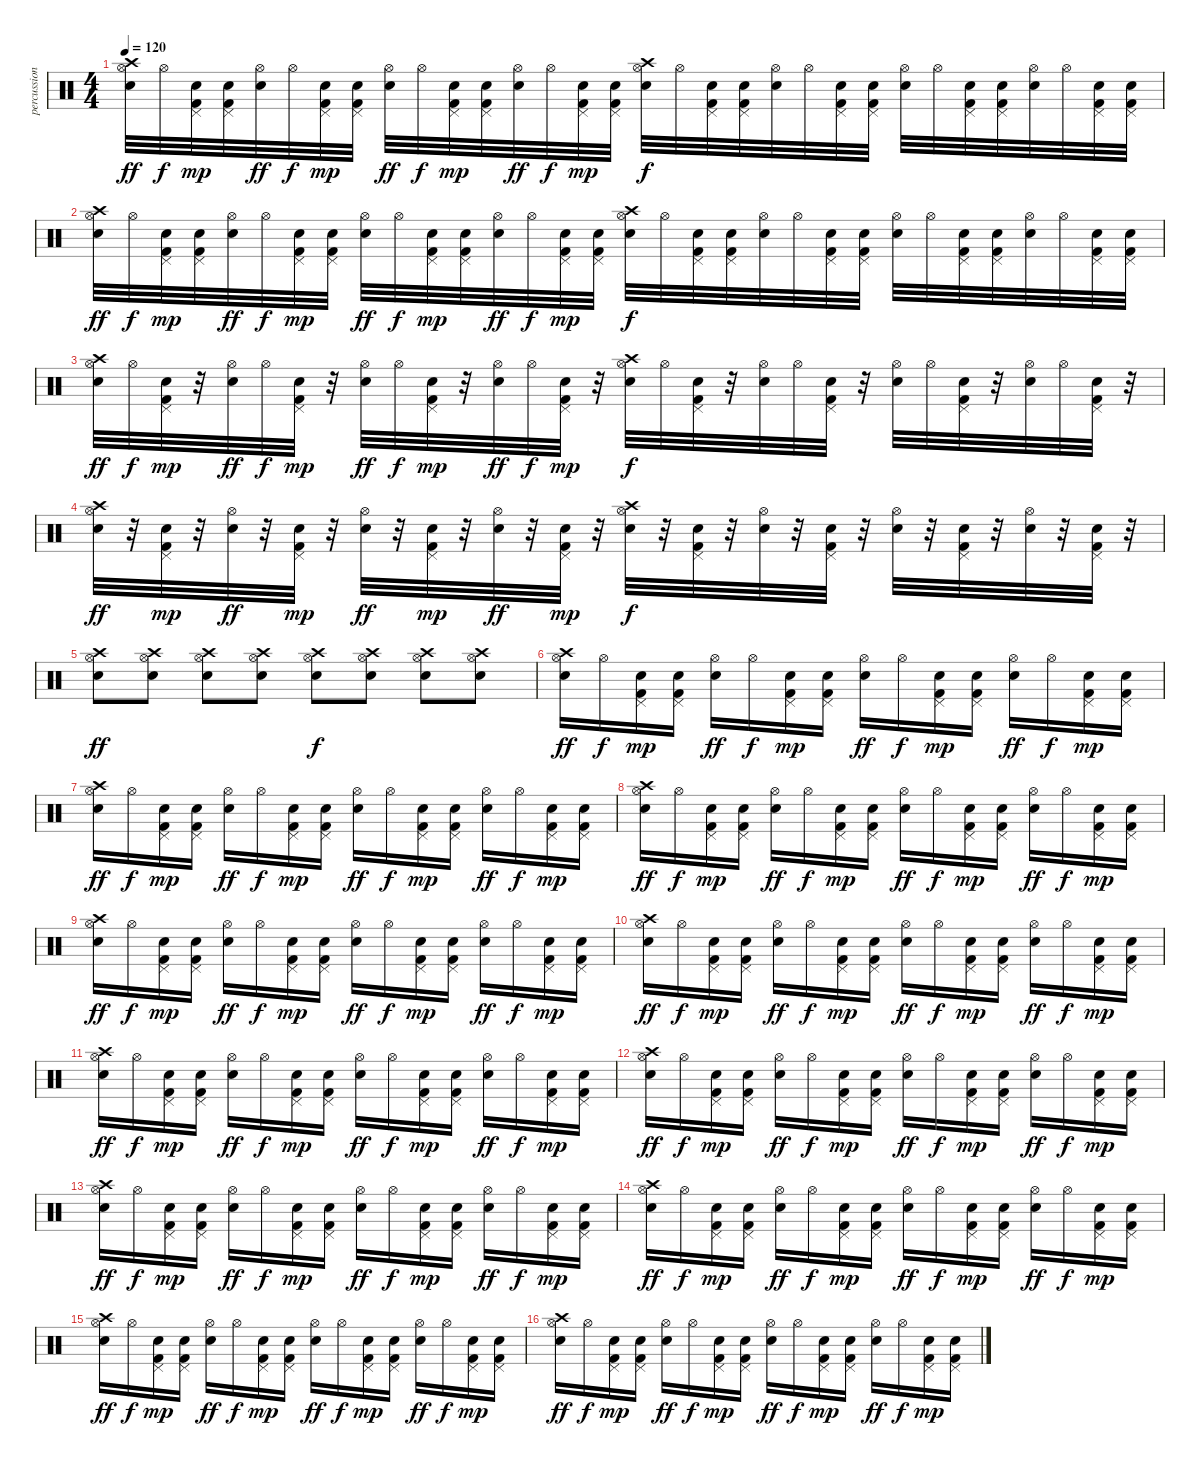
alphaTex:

\track ("percussion" "percussion") {instrument percussion}
\staff {score}
\articulation defaults
\ts (4 4)
\tempo 120
\clef neutral
\ks c
("Hi-Hat (open)" "Electric Snare (hit)" "Crash high (hit)").32{dy ff} "Hi-Hat (open)".32{dy f} ("Electric Snare (hit)" "Kick (hit) 2" "Pedal Hi-Hat (hit)").32{dy mp} ("Electric Snare (hit)" "Kick (hit) 2" "Pedal Hi-Hat (hit)").32 ("Hi-Hat (open)" "Electric Snare (hit)").32{dy ff} "Hi-Hat (open)".32{dy f} ("Electric Snare (hit)" "Kick (hit) 2" "Pedal Hi-Hat (hit)").32{dy mp} ("Electric Snare (hit)" "Kick (hit) 2" "Pedal Hi-Hat (hit)").32 ("Hi-Hat (open)" "Electric Snare (hit)").32{dy ff} "Hi-Hat (open)".32{dy f} ("Electric Snare (hit)" "Kick (hit) 2" "Pedal Hi-Hat (hit)").32{dy mp} ("Electric Snare (hit)" "Kick (hit) 2" "Pedal Hi-Hat (hit)").32 ("Hi-Hat (open)" "Electric Snare (hit)").32{dy ff} "Hi-Hat (open)".32{dy f} ("Electric Snare (hit)" "Kick (hit) 2" "Pedal Hi-Hat (hit)").32{dy mp} ("Electric Snare (hit)" "Kick (hit) 2" "Pedal Hi-Hat (hit)").32 ("Hi-Hat (open)" "Electric Snare (hit)" "Crash high (hit)").32{dy f} "Hi-Hat (open)".32 ("Electric Snare (hit)" "Kick (hit) 2" "Pedal Hi-Hat (hit)").32 ("Electric Snare (hit)" "Kick (hit) 2" "Pedal Hi-Hat (hit)").32 ("Hi-Hat (open)" "Electric Snare (hit)").32 "Hi-Hat (open)".32 ("Electric Snare (hit)" "Kick (hit) 2" "Pedal Hi-Hat (hit)").32 ("Electric Snare (hit)" "Kick (hit) 2" "Pedal Hi-Hat (hit)").32 ("Hi-Hat (open)" "Electric Snare (hit)").32 "Hi-Hat (open)".32 ("Electric Snare (hit)" "Kick (hit) 2" "Pedal Hi-Hat (hit)").32 ("Electric Snare (hit)" "Kick (hit) 2" "Pedal Hi-Hat (hit)").32 ("Hi-Hat (open)" "Electric Snare (hit)").32 "Hi-Hat (open)".32 ("Electric Snare (hit)" "Kick (hit) 2" "Pedal Hi-Hat (hit)").32 ("Electric Snare (hit)" "Kick (hit) 2" "Pedal Hi-Hat (hit)").32 |
("Hi-Hat (open)" "Electric Snare (hit)" "Crash high (hit)").32{dy ff} "Hi-Hat (open)".32{dy f} ("Electric Snare (hit)" "Kick (hit) 2" "Pedal Hi-Hat (hit)").32{dy mp} ("Electric Snare (hit)" "Kick (hit) 2" "Pedal Hi-Hat (hit)").32 ("Hi-Hat (open)" "Electric Snare (hit)").32{dy ff} "Hi-Hat (open)".32{dy f} ("Electric Snare (hit)" "Kick (hit) 2" "Pedal Hi-Hat (hit)").32{dy mp} ("Electric Snare (hit)" "Kick (hit) 2" "Pedal Hi-Hat (hit)").32 ("Hi-Hat (open)" "Electric Snare (hit)").32{dy ff} "Hi-Hat (open)".32{dy f} ("Electric Snare (hit)" "Kick (hit) 2" "Pedal Hi-Hat (hit)").32{dy mp} ("Electric Snare (hit)" "Kick (hit) 2" "Pedal Hi-Hat (hit)").32 ("Hi-Hat (open)" "Electric Snare (hit)").32{dy ff} "Hi-Hat (open)".32{dy f} ("Electric Snare (hit)" "Kick (hit) 2" "Pedal Hi-Hat (hit)").32{dy mp} ("Electric Snare (hit)" "Kick (hit) 2" "Pedal Hi-Hat (hit)").32 ("Hi-Hat (open)" "Electric Snare (hit)" "Crash high (hit)").32{dy f} "Hi-Hat (open)".32 ("Electric Snare (hit)" "Kick (hit) 2" "Pedal Hi-Hat (hit)").32 ("Electric Snare (hit)" "Kick (hit) 2" "Pedal Hi-Hat (hit)").32 ("Hi-Hat (open)" "Electric Snare (hit)").32 "Hi-Hat (open)".32 ("Electric Snare (hit)" "Kick (hit) 2" "Pedal Hi-Hat (hit)").32 ("Electric Snare (hit)" "Kick (hit) 2" "Pedal Hi-Hat (hit)").32 ("Hi-Hat (open)" "Electric Snare (hit)").32 "Hi-Hat (open)".32 ("Electric Snare (hit)" "Kick (hit) 2" "Pedal Hi-Hat (hit)").32 ("Electric Snare (hit)" "Kick (hit) 2" "Pedal Hi-Hat (hit)").32 ("Hi-Hat (open)" "Electric Snare (hit)").32 "Hi-Hat (open)".32 ("Electric Snare (hit)" "Kick (hit) 2" "Pedal Hi-Hat (hit)").32 ("Electric Snare (hit)" "Kick (hit) 2" "Pedal Hi-Hat (hit)").32 |
("Hi-Hat (open)" "Electric Snare (hit)" "Crash high (hit)").32{dy ff} "Hi-Hat (open)".32{dy f} ("Electric Snare (hit)" "Kick (hit) 2" "Pedal Hi-Hat (hit)").32{dy mp} r.32 ("Hi-Hat (open)" "Electric Snare (hit)").32{dy ff} "Hi-Hat (open)".32{dy f} ("Electric Snare (hit)" "Kick (hit) 2" "Pedal Hi-Hat (hit)").32{dy mp} r.32 ("Hi-Hat (open)" "Electric Snare (hit)").32{dy ff} "Hi-Hat (open)".32{dy f} ("Electric Snare (hit)" "Kick (hit) 2" "Pedal Hi-Hat (hit)").32{dy mp} r.32 ("Hi-Hat (open)" "Electric Snare (hit)").32{dy ff} "Hi-Hat (open)".32{dy f} ("Electric Snare (hit)" "Kick (hit) 2" "Pedal Hi-Hat (hit)").32{dy mp} r.32 ("Hi-Hat (open)" "Electric Snare (hit)" "Crash high (hit)").32{dy f} "Hi-Hat (open)".32 ("Electric Snare (hit)" "Kick (hit) 2" "Pedal Hi-Hat (hit)").32 r.32 ("Hi-Hat (open)" "Electric Snare (hit)").32 "Hi-Hat (open)".32 ("Electric Snare (hit)" "Kick (hit) 2" "Pedal Hi-Hat (hit)").32 r.32 ("Hi-Hat (open)" "Electric Snare (hit)").32 "Hi-Hat (open)".32 ("Electric Snare (hit)" "Kick (hit) 2" "Pedal Hi-Hat (hit)").32 r.32 ("Hi-Hat (open)" "Electric Snare (hit)").32 "Hi-Hat (open)".32 ("Electric Snare (hit)" "Kick (hit) 2" "Pedal Hi-Hat (hit)").32 r.32 |
("Hi-Hat (open)" "Electric Snare (hit)" "Crash high (hit)").32{dy ff} r.32 ("Electric Snare (hit)" "Kick (hit) 2" "Pedal Hi-Hat (hit)").32{dy mp} r.32 ("Hi-Hat (open)" "Electric Snare (hit)").32{dy ff} r.32 ("Electric Snare (hit)" "Kick (hit) 2" "Pedal Hi-Hat (hit)").32{dy mp} r.32 ("Hi-Hat (open)" "Electric Snare (hit)").32{dy ff} r.32 ("Electric Snare (hit)" "Kick (hit) 2" "Pedal Hi-Hat (hit)").32{dy mp} r.32 ("Hi-Hat (open)" "Electric Snare (hit)").32{dy ff} r.32 ("Electric Snare (hit)" "Kick (hit) 2" "Pedal Hi-Hat (hit)").32{dy mp} r.32 ("Hi-Hat (open)" "Electric Snare (hit)" "Crash high (hit)").32{dy f} r.32 ("Electric Snare (hit)" "Kick (hit) 2" "Pedal Hi-Hat (hit)").32 r.32 ("Hi-Hat (open)" "Electric Snare (hit)").32 r.32 ("Electric Snare (hit)" "Kick (hit) 2" "Pedal Hi-Hat (hit)").32 r.32 ("Hi-Hat (open)" "Electric Snare (hit)").32 r.32 ("Electric Snare (hit)" "Kick (hit) 2" "Pedal Hi-Hat (hit)").32 r.32 ("Hi-Hat (open)" "Electric Snare (hit)").32 r.32 ("Electric Snare (hit)" "Kick (hit) 2" "Pedal Hi-Hat (hit)").32 r.32 |
("Hi-Hat (open)" "Electric Snare (hit)" "Crash high (hit)").8{dy ff} ("Hi-Hat (open)" "Electric Snare (hit)" "Crash high (hit)").8 ("Hi-Hat (open)" "Electric Snare (hit)" "Crash high (hit)").8 ("Hi-Hat (open)" "Electric Snare (hit)" "Crash high (hit)").8 ("Hi-Hat (open)" "Electric Snare (hit)" "Crash high (hit)").8{dy f} ("Hi-Hat (open)" "Electric Snare (hit)" "Crash high (hit)").8 ("Hi-Hat (open)" "Electric Snare (hit)" "Crash high (hit)").8 ("Hi-Hat (open)" "Electric Snare (hit)" "Crash high (hit)").8 |
("Hi-Hat (open)" "Electric Snare (hit)" "Crash high (hit)").16{dy ff} "Hi-Hat (open)".16{dy f} ("Electric Snare (hit)" "Kick (hit) 2" "Pedal Hi-Hat (hit)").16{dy mp} ("Electric Snare (hit)" "Kick (hit) 2" "Pedal Hi-Hat (hit)").16 ("Hi-Hat (open)" "Electric Snare (hit)").16{dy ff} "Hi-Hat (open)".16{dy f} ("Electric Snare (hit)" "Kick (hit) 2" "Pedal Hi-Hat (hit)").16{dy mp} ("Electric Snare (hit)" "Kick (hit) 2" "Pedal Hi-Hat (hit)").16 ("Hi-Hat (open)" "Electric Snare (hit)").16{dy ff} "Hi-Hat (open)".16{dy f} ("Electric Snare (hit)" "Kick (hit) 2" "Pedal Hi-Hat (hit)").16{dy mp} ("Electric Snare (hit)" "Kick (hit) 2" "Pedal Hi-Hat (hit)").16 ("Hi-Hat (open)" "Electric Snare (hit)").16{dy ff} "Hi-Hat (open)".16{dy f} ("Electric Snare (hit)" "Kick (hit) 2" "Pedal Hi-Hat (hit)").16{dy mp} ("Electric Snare (hit)" "Kick (hit) 2" "Pedal Hi-Hat (hit)").16 |
("Hi-Hat (open)" "Electric Snare (hit)" "Crash high (hit)").16{dy ff} "Hi-Hat (open)".16{dy f} ("Electric Snare (hit)" "Kick (hit) 2" "Pedal Hi-Hat (hit)").16{dy mp} ("Electric Snare (hit)" "Kick (hit) 2" "Pedal Hi-Hat (hit)").16 ("Hi-Hat (open)" "Electric Snare (hit)").16{dy ff} "Hi-Hat (open)".16{dy f} ("Electric Snare (hit)" "Kick (hit) 2" "Pedal Hi-Hat (hit)").16{dy mp} ("Electric Snare (hit)" "Kick (hit) 2" "Pedal Hi-Hat (hit)").16 ("Hi-Hat (open)" "Electric Snare (hit)").16{dy ff} "Hi-Hat (open)".16{dy f} ("Electric Snare (hit)" "Kick (hit) 2" "Pedal Hi-Hat (hit)").16{dy mp} ("Electric Snare (hit)" "Kick (hit) 2" "Pedal Hi-Hat (hit)").16 ("Hi-Hat (open)" "Electric Snare (hit)").16{dy ff} "Hi-Hat (open)".16{dy f} ("Electric Snare (hit)" "Kick (hit) 2" "Pedal Hi-Hat (hit)").16{dy mp} ("Electric Snare (hit)" "Kick (hit) 2" "Pedal Hi-Hat (hit)").16 |
("Hi-Hat (open)" "Electric Snare (hit)" "Crash high (hit)").16{dy ff} "Hi-Hat (open)".16{dy f} ("Electric Snare (hit)" "Kick (hit) 2" "Pedal Hi-Hat (hit)").16{dy mp} ("Electric Snare (hit)" "Kick (hit) 2" "Pedal Hi-Hat (hit)").16 ("Hi-Hat (open)" "Electric Snare (hit)").16{dy ff} "Hi-Hat (open)".16{dy f} ("Electric Snare (hit)" "Kick (hit) 2" "Pedal Hi-Hat (hit)").16{dy mp} ("Electric Snare (hit)" "Kick (hit) 2" "Pedal Hi-Hat (hit)").16 ("Hi-Hat (open)" "Electric Snare (hit)").16{dy ff} "Hi-Hat (open)".16{dy f} ("Electric Snare (hit)" "Kick (hit) 2" "Pedal Hi-Hat (hit)").16{dy mp} ("Electric Snare (hit)" "Kick (hit) 2" "Pedal Hi-Hat (hit)").16 ("Hi-Hat (open)" "Electric Snare (hit)").16{dy ff} "Hi-Hat (open)".16{dy f} ("Electric Snare (hit)" "Kick (hit) 2" "Pedal Hi-Hat (hit)").16{dy mp} ("Electric Snare (hit)" "Kick (hit) 2" "Pedal Hi-Hat (hit)").16 |
("Hi-Hat (open)" "Electric Snare (hit)" "Crash high (hit)").16{dy ff} "Hi-Hat (open)".16{dy f} ("Electric Snare (hit)" "Kick (hit) 2" "Pedal Hi-Hat (hit)").16{dy mp} ("Electric Snare (hit)" "Kick (hit) 2" "Pedal Hi-Hat (hit)").16 ("Hi-Hat (open)" "Electric Snare (hit)").16{dy ff} "Hi-Hat (open)".16{dy f} ("Electric Snare (hit)" "Kick (hit) 2" "Pedal Hi-Hat (hit)").16{dy mp} ("Electric Snare (hit)" "Kick (hit) 2" "Pedal Hi-Hat (hit)").16 ("Hi-Hat (open)" "Electric Snare (hit)").16{dy ff} "Hi-Hat (open)".16{dy f} ("Electric Snare (hit)" "Kick (hit) 2" "Pedal Hi-Hat (hit)").16{dy mp} ("Electric Snare (hit)" "Kick (hit) 2" "Pedal Hi-Hat (hit)").16 ("Hi-Hat (open)" "Electric Snare (hit)").16{dy ff} "Hi-Hat (open)".16{dy f} ("Electric Snare (hit)" "Kick (hit) 2" "Pedal Hi-Hat (hit)").16{dy mp} ("Electric Snare (hit)" "Kick (hit) 2" "Pedal Hi-Hat (hit)").16 |
("Hi-Hat (open)" "Electric Snare (hit)" "Crash high (hit)").16{dy ff} "Hi-Hat (open)".16{dy f} ("Electric Snare (hit)" "Kick (hit) 2" "Pedal Hi-Hat (hit)").16{dy mp} ("Electric Snare (hit)" "Kick (hit) 2" "Pedal Hi-Hat (hit)").16 ("Hi-Hat (open)" "Electric Snare (hit)").16{dy ff} "Hi-Hat (open)".16{dy f} ("Electric Snare (hit)" "Kick (hit) 2" "Pedal Hi-Hat (hit)").16{dy mp} ("Electric Snare (hit)" "Kick (hit) 2" "Pedal Hi-Hat (hit)").16 ("Hi-Hat (open)" "Electric Snare (hit)").16{dy ff} "Hi-Hat (open)".16{dy f} ("Electric Snare (hit)" "Kick (hit) 2" "Pedal Hi-Hat (hit)").16{dy mp} ("Electric Snare (hit)" "Kick (hit) 2" "Pedal Hi-Hat (hit)").16 ("Hi-Hat (open)" "Electric Snare (hit)").16{dy ff} "Hi-Hat (open)".16{dy f} ("Electric Snare (hit)" "Kick (hit) 2" "Pedal Hi-Hat (hit)").16{dy mp} ("Electric Snare (hit)" "Kick (hit) 2" "Pedal Hi-Hat (hit)").16 |
("Hi-Hat (open)" "Electric Snare (hit)" "Crash high (hit)").16{dy ff} "Hi-Hat (open)".16{dy f} ("Electric Snare (hit)" "Kick (hit) 2" "Pedal Hi-Hat (hit)").16{dy mp} ("Electric Snare (hit)" "Kick (hit) 2" "Pedal Hi-Hat (hit)").16 ("Hi-Hat (open)" "Electric Snare (hit)").16{dy ff} "Hi-Hat (open)".16{dy f} ("Electric Snare (hit)" "Kick (hit) 2" "Pedal Hi-Hat (hit)").16{dy mp} ("Electric Snare (hit)" "Kick (hit) 2" "Pedal Hi-Hat (hit)").16 ("Hi-Hat (open)" "Electric Snare (hit)").16{dy ff} "Hi-Hat (open)".16{dy f} ("Electric Snare (hit)" "Kick (hit) 2" "Pedal Hi-Hat (hit)").16{dy mp} ("Electric Snare (hit)" "Kick (hit) 2" "Pedal Hi-Hat (hit)").16 ("Hi-Hat (open)" "Electric Snare (hit)").16{dy ff} "Hi-Hat (open)".16{dy f} ("Electric Snare (hit)" "Kick (hit) 2" "Pedal Hi-Hat (hit)").16{dy mp} ("Electric Snare (hit)" "Kick (hit) 2" "Pedal Hi-Hat (hit)").16 |
("Hi-Hat (open)" "Electric Snare (hit)" "Crash high (hit)").16{dy ff} "Hi-Hat (open)".16{dy f} ("Electric Snare (hit)" "Kick (hit) 2" "Pedal Hi-Hat (hit)").16{dy mp} ("Electric Snare (hit)" "Kick (hit) 2" "Pedal Hi-Hat (hit)").16 ("Hi-Hat (open)" "Electric Snare (hit)").16{dy ff} "Hi-Hat (open)".16{dy f} ("Electric Snare (hit)" "Kick (hit) 2" "Pedal Hi-Hat (hit)").16{dy mp} ("Electric Snare (hit)" "Kick (hit) 2" "Pedal Hi-Hat (hit)").16 ("Hi-Hat (open)" "Electric Snare (hit)").16{dy ff} "Hi-Hat (open)".16{dy f} ("Electric Snare (hit)" "Kick (hit) 2" "Pedal Hi-Hat (hit)").16{dy mp} ("Electric Snare (hit)" "Kick (hit) 2" "Pedal Hi-Hat (hit)").16 ("Hi-Hat (open)" "Electric Snare (hit)").16{dy ff} "Hi-Hat (open)".16{dy f} ("Electric Snare (hit)" "Kick (hit) 2" "Pedal Hi-Hat (hit)").16{dy mp} ("Electric Snare (hit)" "Kick (hit) 2" "Pedal Hi-Hat (hit)").16 |
("Hi-Hat (open)" "Electric Snare (hit)" "Crash high (hit)").16{dy ff} "Hi-Hat (open)".16{dy f} ("Electric Snare (hit)" "Kick (hit) 2" "Pedal Hi-Hat (hit)").16{dy mp} ("Electric Snare (hit)" "Kick (hit) 2" "Pedal Hi-Hat (hit)").16 ("Hi-Hat (open)" "Electric Snare (hit)").16{dy ff} "Hi-Hat (open)".16{dy f} ("Electric Snare (hit)" "Kick (hit) 2" "Pedal Hi-Hat (hit)").16{dy mp} ("Electric Snare (hit)" "Kick (hit) 2" "Pedal Hi-Hat (hit)").16 ("Hi-Hat (open)" "Electric Snare (hit)").16{dy ff} "Hi-Hat (open)".16{dy f} ("Electric Snare (hit)" "Kick (hit) 2" "Pedal Hi-Hat (hit)").16{dy mp} ("Electric Snare (hit)" "Kick (hit) 2" "Pedal Hi-Hat (hit)").16 ("Hi-Hat (open)" "Electric Snare (hit)").16{dy ff} "Hi-Hat (open)".16{dy f} ("Electric Snare (hit)" "Kick (hit) 2" "Pedal Hi-Hat (hit)").16{dy mp} ("Electric Snare (hit)" "Kick (hit) 2" "Pedal Hi-Hat (hit)").16 |
("Hi-Hat (open)" "Electric Snare (hit)" "Crash high (hit)").16{dy ff} "Hi-Hat (open)".16{dy f} ("Electric Snare (hit)" "Kick (hit) 2" "Pedal Hi-Hat (hit)").16{dy mp} ("Electric Snare (hit)" "Kick (hit) 2" "Pedal Hi-Hat (hit)").16 ("Hi-Hat (open)" "Electric Snare (hit)").16{dy ff} "Hi-Hat (open)".16{dy f} ("Electric Snare (hit)" "Kick (hit) 2" "Pedal Hi-Hat (hit)").16{dy mp} ("Electric Snare (hit)" "Kick (hit) 2" "Pedal Hi-Hat (hit)").16 ("Hi-Hat (open)" "Electric Snare (hit)").16{dy ff} "Hi-Hat (open)".16{dy f} ("Electric Snare (hit)" "Kick (hit) 2" "Pedal Hi-Hat (hit)").16{dy mp} ("Electric Snare (hit)" "Kick (hit) 2" "Pedal Hi-Hat (hit)").16 ("Hi-Hat (open)" "Electric Snare (hit)").16{dy ff} "Hi-Hat (open)".16{dy f} ("Electric Snare (hit)" "Kick (hit) 2" "Pedal Hi-Hat (hit)").16{dy mp} ("Electric Snare (hit)" "Kick (hit) 2" "Pedal Hi-Hat (hit)").16 |
("Hi-Hat (open)" "Electric Snare (hit)" "Crash high (hit)").16{dy ff} "Hi-Hat (open)".16{dy f} ("Electric Snare (hit)" "Kick (hit) 2" "Pedal Hi-Hat (hit)").16{dy mp} ("Electric Snare (hit)" "Kick (hit) 2" "Pedal Hi-Hat (hit)").16 ("Hi-Hat (open)" "Electric Snare (hit)").16{dy ff} "Hi-Hat (open)".16{dy f} ("Electric Snare (hit)" "Kick (hit) 2" "Pedal Hi-Hat (hit)").16{dy mp} ("Electric Snare (hit)" "Kick (hit) 2" "Pedal Hi-Hat (hit)").16 ("Hi-Hat (open)" "Electric Snare (hit)").16{dy ff} "Hi-Hat (open)".16{dy f} ("Electric Snare (hit)" "Kick (hit) 2" "Pedal Hi-Hat (hit)").16{dy mp} ("Electric Snare (hit)" "Kick (hit) 2" "Pedal Hi-Hat (hit)").16 ("Hi-Hat (open)" "Electric Snare (hit)").16{dy ff} "Hi-Hat (open)".16{dy f} ("Electric Snare (hit)" "Kick (hit) 2" "Pedal Hi-Hat (hit)").16{dy mp} ("Electric Snare (hit)" "Kick (hit) 2" "Pedal Hi-Hat (hit)").16 |
("Hi-Hat (open)" "Electric Snare (hit)" "Crash high (hit)").16{dy ff} "Hi-Hat (open)".16{dy f} ("Electric Snare (hit)" "Kick (hit) 2" "Pedal Hi-Hat (hit)").16{dy mp} ("Electric Snare (hit)" "Kick (hit) 2" "Pedal Hi-Hat (hit)").16 ("Hi-Hat (open)" "Electric Snare (hit)").16{dy ff} "Hi-Hat (open)".16{dy f} ("Electric Snare (hit)" "Kick (hit) 2" "Pedal Hi-Hat (hit)").16{dy mp} ("Electric Snare (hit)" "Kick (hit) 2" "Pedal Hi-Hat (hit)").16 ("Hi-Hat (open)" "Electric Snare (hit)").16{dy ff} "Hi-Hat (open)".16{dy f} ("Electric Snare (hit)" "Kick (hit) 2" "Pedal Hi-Hat (hit)").16{dy mp} ("Electric Snare (hit)" "Kick (hit) 2" "Pedal Hi-Hat (hit)").16 ("Hi-Hat (open)" "Electric Snare (hit)").16{dy ff} "Hi-Hat (open)".16{dy f} ("Electric Snare (hit)" "Kick (hit) 2" "Pedal Hi-Hat (hit)").16{dy mp} ("Electric Snare (hit)" "Kick (hit) 2" "Pedal Hi-Hat (hit)").16
